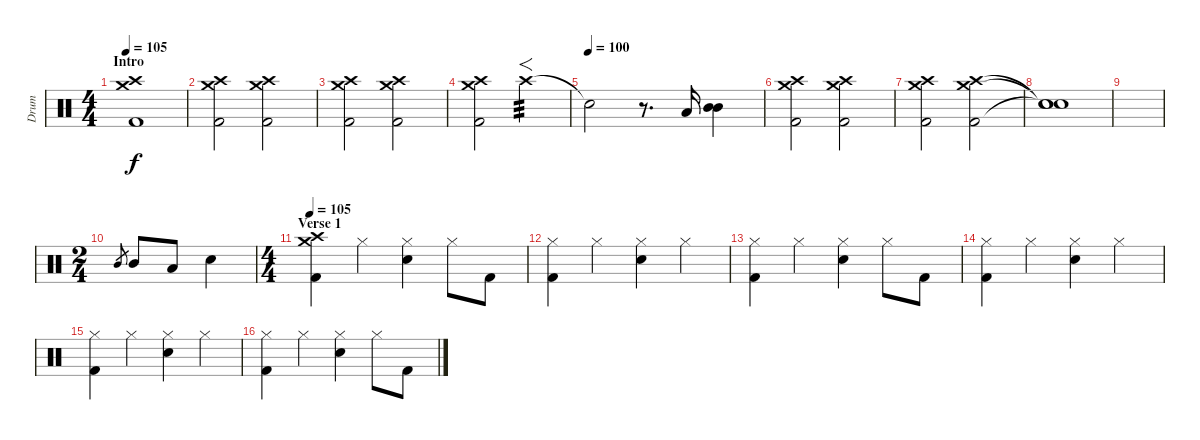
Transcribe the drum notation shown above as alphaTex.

\track ("Drum" "Drum") {instrument percussion}
\staff {score}
\articulation defaults
\ts (4 4)
\section ("" "Intro")
\tempo 105
\clef neutral
\ks c
("Kick (hit) 2" "Crash medium (hit)" "Crash high (hit)").1{dy f} |
("Kick (hit) 2" "Crash medium (hit)" "Crash high (hit)").2 ("Kick (hit) 2" "Crash medium (hit)" "Crash high (hit)").2 |
("Kick (hit) 2" "Crash medium (hit)" "Crash high (hit)").2 ("Kick (hit) 2" "Crash medium (hit)" "Crash high (hit)").2 |
("Kick (hit) 2" "Crash medium (hit)" "Crash high (hit)").2 "Crash high (hit)".2{f tp 3} |
\tempo (100)
"Snare (hit)"{t}.2 r.8{d} "Low Tom (hit)".16 ("Mid Tom (hit)" "Mid Tom (hit)").4 |
("Kick (hit) 2" "Crash medium (hit)" "Crash high (hit)").2 ("Kick (hit) 2" "Crash medium (hit)" "Crash high (hit)").2 |
("Kick (hit) 2" "Crash medium (hit)" "Crash high (hit)").2 ("Kick (hit) 2" "Crash medium (hit)" "Crash high (hit)").2 |
("Snare (hit)"{t} "Snare (hit)"{t} "Snare (hit)"{t}).1 |
|
\ts (2 4)
"Mid Tom (hit)".8{gr} "Mid Tom (hit)".8 "Low Tom (hit)".8 "Snare (hit) 2".4 |
\ts (4 4)
\section ("" "Verse 1")
\tempo 105
("Kick (hit) 2" "Crash medium (hit)" "Crash high (hit)").4 "Hi-Hat (closed)".4 ("Hi-Hat (closed)" "Snare (hit) 2").4 "Hi-Hat (closed)".8 "Kick (hit) 2".8 |
("Hi-Hat (closed)" "Kick (hit) 2").4 "Hi-Hat (closed)".4 ("Hi-Hat (closed)" "Snare (hit) 2").4 "Hi-Hat (closed)".4 |
("Hi-Hat (closed)" "Kick (hit) 2").4 "Hi-Hat (closed)".4 ("Hi-Hat (closed)" "Snare (hit) 2").4 "Hi-Hat (closed)".8 "Kick (hit) 2".8 |
("Hi-Hat (closed)" "Kick (hit) 2").4 "Hi-Hat (closed)".4 ("Hi-Hat (closed)" "Snare (hit) 2").4 "Hi-Hat (closed)".4 |
("Hi-Hat (closed)" "Kick (hit) 2").4 "Hi-Hat (closed)".4 ("Hi-Hat (closed)" "Snare (hit) 2").4 "Hi-Hat (closed)".4 |
("Hi-Hat (closed)" "Kick (hit) 2").4 "Hi-Hat (closed)".4 ("Hi-Hat (closed)" "Snare (hit) 2").4 "Hi-Hat (closed)".8 "Kick (hit) 2".8
